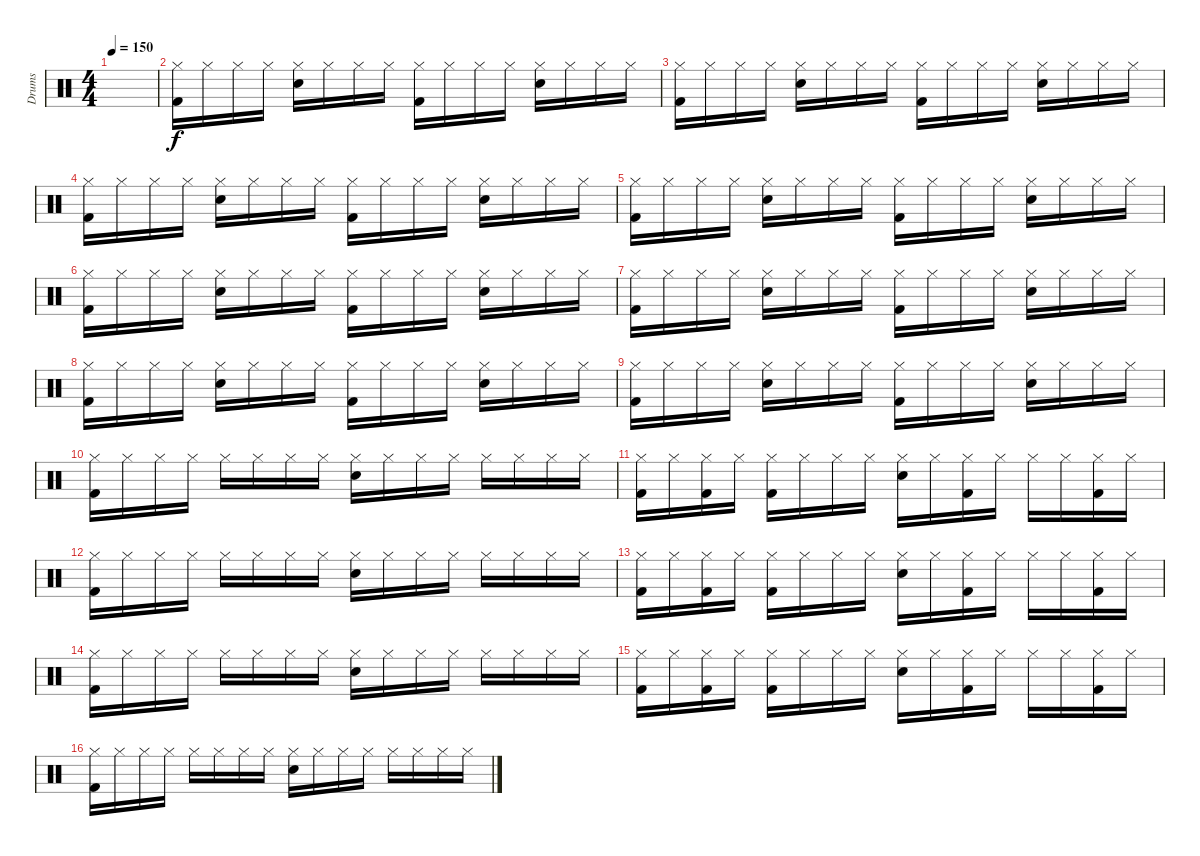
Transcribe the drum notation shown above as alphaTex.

\track ("Drums" "Drums") {instrument percussion}
\staff {score}
\articulation defaults
\ts (4 4)
\tempo 150
\clef neutral
\ks c
|
("Hi-Hat (closed)" "Kick (hit) 2").16{volume 10} "Hi-Hat (closed)".16 "Hi-Hat (closed)".16 "Hi-Hat (closed)".16 ("Hi-Hat (closed)" "Electric Snare (hit)").16 "Hi-Hat (closed)".16 "Hi-Hat (closed)".16 "Hi-Hat (closed)".16 ("Hi-Hat (closed)" "Kick (hit) 2").16 "Hi-Hat (closed)".16 "Hi-Hat (closed)".16 "Hi-Hat (closed)".16 ("Hi-Hat (closed)" "Electric Snare (hit)").16 "Hi-Hat (closed)".16 "Hi-Hat (closed)".16 "Hi-Hat (closed)".16 |
("Hi-Hat (closed)" "Kick (hit) 2").16 "Hi-Hat (closed)".16 "Hi-Hat (closed)".16 "Hi-Hat (closed)".16 ("Hi-Hat (closed)" "Electric Snare (hit)").16 "Hi-Hat (closed)".16 "Hi-Hat (closed)".16 "Hi-Hat (closed)".16 ("Hi-Hat (closed)" "Kick (hit) 2").16 "Hi-Hat (closed)".16 "Hi-Hat (closed)".16 "Hi-Hat (closed)".16 ("Hi-Hat (closed)" "Electric Snare (hit)").16 "Hi-Hat (closed)".16 "Hi-Hat (closed)".16 "Hi-Hat (closed)".16 |
("Hi-Hat (closed)" "Kick (hit) 2").16 "Hi-Hat (closed)".16 "Hi-Hat (closed)".16 "Hi-Hat (closed)".16 ("Hi-Hat (closed)" "Electric Snare (hit)").16 "Hi-Hat (closed)".16 "Hi-Hat (closed)".16 "Hi-Hat (closed)".16 ("Hi-Hat (closed)" "Kick (hit) 2").16 "Hi-Hat (closed)".16 "Hi-Hat (closed)".16 "Hi-Hat (closed)".16 ("Hi-Hat (closed)" "Electric Snare (hit)").16 "Hi-Hat (closed)".16 "Hi-Hat (closed)".16 "Hi-Hat (closed)".16 |
("Hi-Hat (closed)" "Kick (hit) 2").16 "Hi-Hat (closed)".16 "Hi-Hat (closed)".16 "Hi-Hat (closed)".16 ("Hi-Hat (closed)" "Electric Snare (hit)").16 "Hi-Hat (closed)".16 "Hi-Hat (closed)".16 "Hi-Hat (closed)".16 ("Hi-Hat (closed)" "Kick (hit) 2").16 "Hi-Hat (closed)".16 "Hi-Hat (closed)".16 "Hi-Hat (closed)".16 ("Hi-Hat (closed)" "Electric Snare (hit)").16 "Hi-Hat (closed)".16 "Hi-Hat (closed)".16 "Hi-Hat (closed)".16 |
("Hi-Hat (closed)" "Kick (hit) 2").16{volume 10} "Hi-Hat (closed)".16 "Hi-Hat (closed)".16 "Hi-Hat (closed)".16 ("Hi-Hat (closed)" "Electric Snare (hit)").16 "Hi-Hat (closed)".16 "Hi-Hat (closed)".16 "Hi-Hat (closed)".16 ("Hi-Hat (closed)" "Kick (hit) 2").16 "Hi-Hat (closed)".16 "Hi-Hat (closed)".16 "Hi-Hat (closed)".16 ("Hi-Hat (closed)" "Electric Snare (hit)").16 "Hi-Hat (closed)".16 "Hi-Hat (closed)".16 "Hi-Hat (closed)".16 |
("Hi-Hat (closed)" "Kick (hit) 2").16 "Hi-Hat (closed)".16 "Hi-Hat (closed)".16 "Hi-Hat (closed)".16 ("Hi-Hat (closed)" "Electric Snare (hit)").16 "Hi-Hat (closed)".16 "Hi-Hat (closed)".16 "Hi-Hat (closed)".16 ("Hi-Hat (closed)" "Kick (hit) 2").16 "Hi-Hat (closed)".16 "Hi-Hat (closed)".16 "Hi-Hat (closed)".16 ("Hi-Hat (closed)" "Electric Snare (hit)").16 "Hi-Hat (closed)".16 "Hi-Hat (closed)".16 "Hi-Hat (closed)".16 |
("Hi-Hat (closed)" "Kick (hit) 2").16 "Hi-Hat (closed)".16 "Hi-Hat (closed)".16 "Hi-Hat (closed)".16 ("Hi-Hat (closed)" "Electric Snare (hit)").16 "Hi-Hat (closed)".16 "Hi-Hat (closed)".16 "Hi-Hat (closed)".16 ("Hi-Hat (closed)" "Kick (hit) 2").16 "Hi-Hat (closed)".16 "Hi-Hat (closed)".16 "Hi-Hat (closed)".16 ("Hi-Hat (closed)" "Electric Snare (hit)").16 "Hi-Hat (closed)".16 "Hi-Hat (closed)".16 "Hi-Hat (closed)".16 |
("Hi-Hat (closed)" "Kick (hit) 2").16 "Hi-Hat (closed)".16 "Hi-Hat (closed)".16 "Hi-Hat (closed)".16 ("Hi-Hat (closed)" "Electric Snare (hit)").16 "Hi-Hat (closed)".16 "Hi-Hat (closed)".16 "Hi-Hat (closed)".16 ("Hi-Hat (closed)" "Kick (hit) 2").16 "Hi-Hat (closed)".16 "Hi-Hat (closed)".16 "Hi-Hat (closed)".16 ("Hi-Hat (closed)" "Electric Snare (hit)").16 "Hi-Hat (closed)".16 "Hi-Hat (closed)".16 "Hi-Hat (closed)".16 |
("Hi-Hat (closed)" "Kick (hit) 2").16{volume 10} "Hi-Hat (closed)".16 "Hi-Hat (closed)".16 "Hi-Hat (closed)".16 "Hi-Hat (closed)".16 "Hi-Hat (closed)".16 "Hi-Hat (closed)".16 "Hi-Hat (closed)".16 ("Hi-Hat (closed)" "Electric Snare (hit)").16 "Hi-Hat (closed)".16 "Hi-Hat (closed)".16 "Hi-Hat (closed)".16 "Hi-Hat (closed)".16 "Hi-Hat (closed)".16 "Hi-Hat (closed)".16 "Hi-Hat (closed)".16 |
("Hi-Hat (closed)" "Kick (hit) 2").16 "Hi-Hat (closed)".16 ("Hi-Hat (closed)" "Kick (hit) 2").16 "Hi-Hat (closed)".16 ("Hi-Hat (closed)" "Kick (hit) 2").16 "Hi-Hat (closed)".16 "Hi-Hat (closed)".16 "Hi-Hat (closed)".16 ("Hi-Hat (closed)" "Electric Snare (hit)").16 "Hi-Hat (closed)".16 ("Hi-Hat (closed)" "Kick (hit) 2").16 "Hi-Hat (closed)".16 "Hi-Hat (closed)".16 "Hi-Hat (closed)".16 ("Hi-Hat (closed)" "Kick (hit) 2").16 "Hi-Hat (closed)".16 |
("Hi-Hat (closed)" "Kick (hit) 2").16{volume 10} "Hi-Hat (closed)".16 "Hi-Hat (closed)".16 "Hi-Hat (closed)".16 "Hi-Hat (closed)".16 "Hi-Hat (closed)".16 "Hi-Hat (closed)".16 "Hi-Hat (closed)".16 ("Hi-Hat (closed)" "Electric Snare (hit)").16 "Hi-Hat (closed)".16 "Hi-Hat (closed)".16 "Hi-Hat (closed)".16 "Hi-Hat (closed)".16 "Hi-Hat (closed)".16 "Hi-Hat (closed)".16 "Hi-Hat (closed)".16 |
("Hi-Hat (closed)" "Kick (hit) 2").16 "Hi-Hat (closed)".16 ("Hi-Hat (closed)" "Kick (hit) 2").16 "Hi-Hat (closed)".16 ("Hi-Hat (closed)" "Kick (hit) 2").16 "Hi-Hat (closed)".16 "Hi-Hat (closed)".16 "Hi-Hat (closed)".16 ("Hi-Hat (closed)" "Electric Snare (hit)").16 "Hi-Hat (closed)".16 ("Hi-Hat (closed)" "Kick (hit) 2").16 "Hi-Hat (closed)".16 "Hi-Hat (closed)".16 "Hi-Hat (closed)".16 ("Hi-Hat (closed)" "Kick (hit) 2").16 "Hi-Hat (closed)".16 |
("Hi-Hat (closed)" "Kick (hit) 2").16{volume 10} "Hi-Hat (closed)".16 "Hi-Hat (closed)".16 "Hi-Hat (closed)".16 "Hi-Hat (closed)".16 "Hi-Hat (closed)".16 "Hi-Hat (closed)".16 "Hi-Hat (closed)".16 ("Hi-Hat (closed)" "Electric Snare (hit)").16 "Hi-Hat (closed)".16 "Hi-Hat (closed)".16 "Hi-Hat (closed)".16 "Hi-Hat (closed)".16 "Hi-Hat (closed)".16 "Hi-Hat (closed)".16 "Hi-Hat (closed)".16 |
("Hi-Hat (closed)" "Kick (hit) 2").16 "Hi-Hat (closed)".16 ("Hi-Hat (closed)" "Kick (hit) 2").16 "Hi-Hat (closed)".16 ("Hi-Hat (closed)" "Kick (hit) 2").16 "Hi-Hat (closed)".16 "Hi-Hat (closed)".16 "Hi-Hat (closed)".16 ("Hi-Hat (closed)" "Electric Snare (hit)").16 "Hi-Hat (closed)".16 ("Hi-Hat (closed)" "Kick (hit) 2").16 "Hi-Hat (closed)".16 "Hi-Hat (closed)".16 "Hi-Hat (closed)".16 ("Hi-Hat (closed)" "Kick (hit) 2").16 "Hi-Hat (closed)".16 |
("Hi-Hat (closed)" "Kick (hit) 2").16{volume 10} "Hi-Hat (closed)".16 "Hi-Hat (closed)".16 "Hi-Hat (closed)".16 "Hi-Hat (closed)".16 "Hi-Hat (closed)".16 "Hi-Hat (closed)".16 "Hi-Hat (closed)".16 ("Hi-Hat (closed)" "Electric Snare (hit)").16 "Hi-Hat (closed)".16 "Hi-Hat (closed)".16 "Hi-Hat (closed)".16 "Hi-Hat (closed)".16 "Hi-Hat (closed)".16 "Hi-Hat (closed)".16 "Hi-Hat (closed)".16
